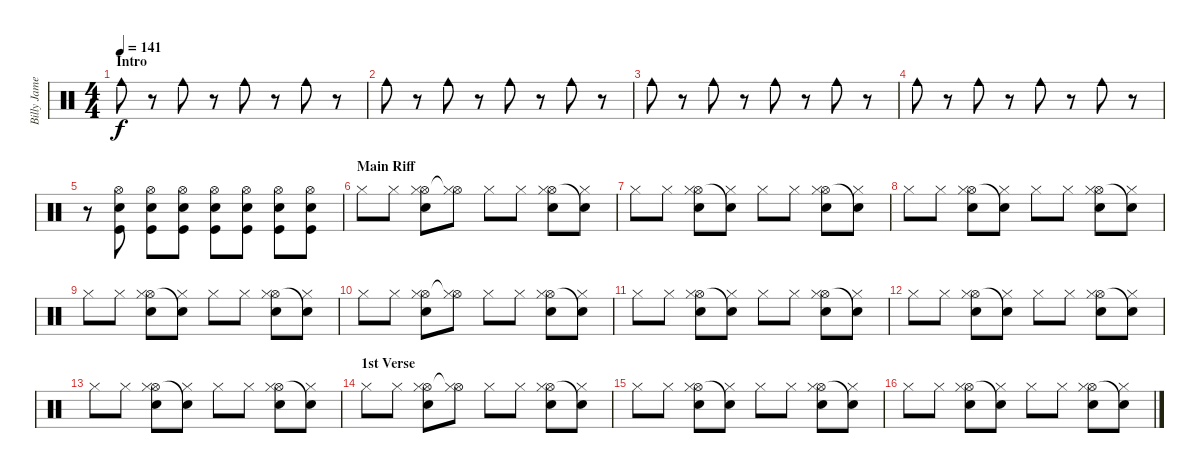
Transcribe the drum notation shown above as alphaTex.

\track ("Billy James (Drums)" "Billy Jame") {instrument percussion}
\staff {score}
\articulation defaults
\ts (4 4)
\section ("" "Intro")
\tempo 141
\clef neutral
\ks c "Cowbell medium (hit)".8{dy f}
r.8 "Cowbell medium (hit)".8 r.8 "Cowbell medium (hit)".8 r.8 "Cowbell medium (hit)".8 r.8 |
"Cowbell medium (hit)".8 r.8 "Cowbell medium (hit)".8 r.8 "Cowbell medium (hit)".8 r.8 "Cowbell medium (hit)".8 r.8 |
"Cowbell medium (hit)".8 r.8 "Cowbell medium (hit)".8 r.8 "Cowbell medium (hit)".8 r.8 "Cowbell medium (hit)".8 r.8 |
"Cowbell medium (hit)".8 r.8 "Cowbell medium (hit)".8 r.8 "Cowbell medium (hit)".8 r.8 "Cowbell medium (hit)".8 r.8 |
r.8 ("Hi-Hat (open)" "Snare (hit) 2" "Kick (hit)").8 ("Hi-Hat (open)" "Snare (hit) 2" "Kick (hit)").8 ("Hi-Hat (open)" "Snare (hit) 2" "Kick (hit)").8 ("Hi-Hat (open)" "Snare (hit) 2" "Kick (hit)").8 ("Hi-Hat (open)" "Snare (hit) 2" "Kick (hit)").8 ("Hi-Hat (open)" "Snare (hit) 2" "Kick (hit)").8 ("Hi-Hat (open)" "Snare (hit) 2" "Kick (hit)").8 |
\section ("" "Main Riff")
"Hi-Hat (closed)".8 "Hi-Hat (closed)".8 ("Hi-Hat (open)" "Snare (hit) 2" "Hi-Hat (closed)").8 ("Hi-Hat (open)"{t} "Hi-Hat (closed)").8 "Hi-Hat (closed)".8 "Hi-Hat (closed)".8 ("Hi-Hat (open)" "Snare (hit) 2" "Hi-Hat (closed)").8 ("Snare (hit)"{t} "Hi-Hat (closed)").8 |
"Hi-Hat (closed)".8 "Hi-Hat (closed)".8 ("Hi-Hat (open)" "Snare (hit) 2" "Hi-Hat (closed)").8 ("Snare (hit)"{t} "Hi-Hat (closed)").8 "Hi-Hat (closed)".8 "Hi-Hat (closed)".8 ("Hi-Hat (open)" "Snare (hit) 2" "Hi-Hat (closed)").8 ("Snare (hit)"{t} "Hi-Hat (closed)").8 |
"Hi-Hat (closed)".8 "Hi-Hat (closed)".8 ("Hi-Hat (open)" "Snare (hit) 2" "Hi-Hat (closed)").8 ("Snare (hit)"{t} "Hi-Hat (closed)").8 "Hi-Hat (closed)".8 "Hi-Hat (closed)".8 ("Hi-Hat (open)" "Snare (hit) 2" "Hi-Hat (closed)").8 ("Snare (hit)"{t} "Hi-Hat (closed)").8 |
"Hi-Hat (closed)".8 "Hi-Hat (closed)".8 ("Hi-Hat (open)" "Snare (hit) 2" "Hi-Hat (closed)").8 ("Snare (hit)"{t} "Hi-Hat (closed)").8 "Hi-Hat (closed)".8 "Hi-Hat (closed)".8 ("Hi-Hat (open)" "Snare (hit) 2" "Hi-Hat (closed)").8 ("Snare (hit)"{t} "Hi-Hat (closed)").8 |
"Hi-Hat (closed)".8 "Hi-Hat (closed)".8 ("Hi-Hat (open)" "Snare (hit) 2" "Hi-Hat (closed)").8 ("Hi-Hat (open)"{t} "Hi-Hat (closed)").8 "Hi-Hat (closed)".8 "Hi-Hat (closed)".8 ("Hi-Hat (open)" "Snare (hit) 2" "Hi-Hat (closed)").8 ("Snare (hit)"{t} "Hi-Hat (closed)").8 |
"Hi-Hat (closed)".8 "Hi-Hat (closed)".8 ("Hi-Hat (open)" "Snare (hit) 2" "Hi-Hat (closed)").8 ("Snare (hit)"{t} "Hi-Hat (closed)").8 "Hi-Hat (closed)".8 "Hi-Hat (closed)".8 ("Hi-Hat (open)" "Snare (hit) 2" "Hi-Hat (closed)").8 ("Snare (hit)"{t} "Hi-Hat (closed)").8 |
"Hi-Hat (closed)".8 "Hi-Hat (closed)".8 ("Hi-Hat (open)" "Snare (hit) 2" "Hi-Hat (closed)").8 ("Snare (hit)"{t} "Hi-Hat (closed)").8 "Hi-Hat (closed)".8 "Hi-Hat (closed)".8 ("Hi-Hat (open)" "Snare (hit) 2" "Hi-Hat (closed)").8 ("Snare (hit)"{t} "Hi-Hat (closed)").8 |
"Hi-Hat (closed)".8 "Hi-Hat (closed)".8 ("Hi-Hat (open)" "Snare (hit) 2" "Hi-Hat (closed)").8 ("Snare (hit)"{t} "Hi-Hat (closed)").8 "Hi-Hat (closed)".8 "Hi-Hat (closed)".8 ("Hi-Hat (open)" "Snare (hit) 2" "Hi-Hat (closed)").8 ("Snare (hit)"{t} "Hi-Hat (closed)").8 |
\section ("" "1st Verse")
"Hi-Hat (closed)".8 "Hi-Hat (closed)".8 ("Hi-Hat (open)" "Snare (hit) 2" "Hi-Hat (closed)").8 ("Hi-Hat (open)"{t} "Hi-Hat (closed)").8 "Hi-Hat (closed)".8 "Hi-Hat (closed)".8 ("Hi-Hat (open)" "Snare (hit) 2" "Hi-Hat (closed)").8 ("Snare (hit)"{t} "Hi-Hat (closed)").8 |
"Hi-Hat (closed)".8 "Hi-Hat (closed)".8 ("Hi-Hat (open)" "Snare (hit) 2" "Hi-Hat (closed)").8 ("Snare (hit)"{t} "Hi-Hat (closed)").8 "Hi-Hat (closed)".8 "Hi-Hat (closed)".8 ("Hi-Hat (open)" "Snare (hit) 2" "Hi-Hat (closed)").8 ("Snare (hit)"{t} "Hi-Hat (closed)").8 |
"Hi-Hat (closed)".8 "Hi-Hat (closed)".8 ("Hi-Hat (open)" "Snare (hit) 2" "Hi-Hat (closed)").8 ("Snare (hit)"{t} "Hi-Hat (closed)").8 "Hi-Hat (closed)".8 "Hi-Hat (closed)".8 ("Hi-Hat (open)" "Snare (hit) 2" "Hi-Hat (closed)").8 ("Snare (hit)"{t} "Hi-Hat (closed)").8
